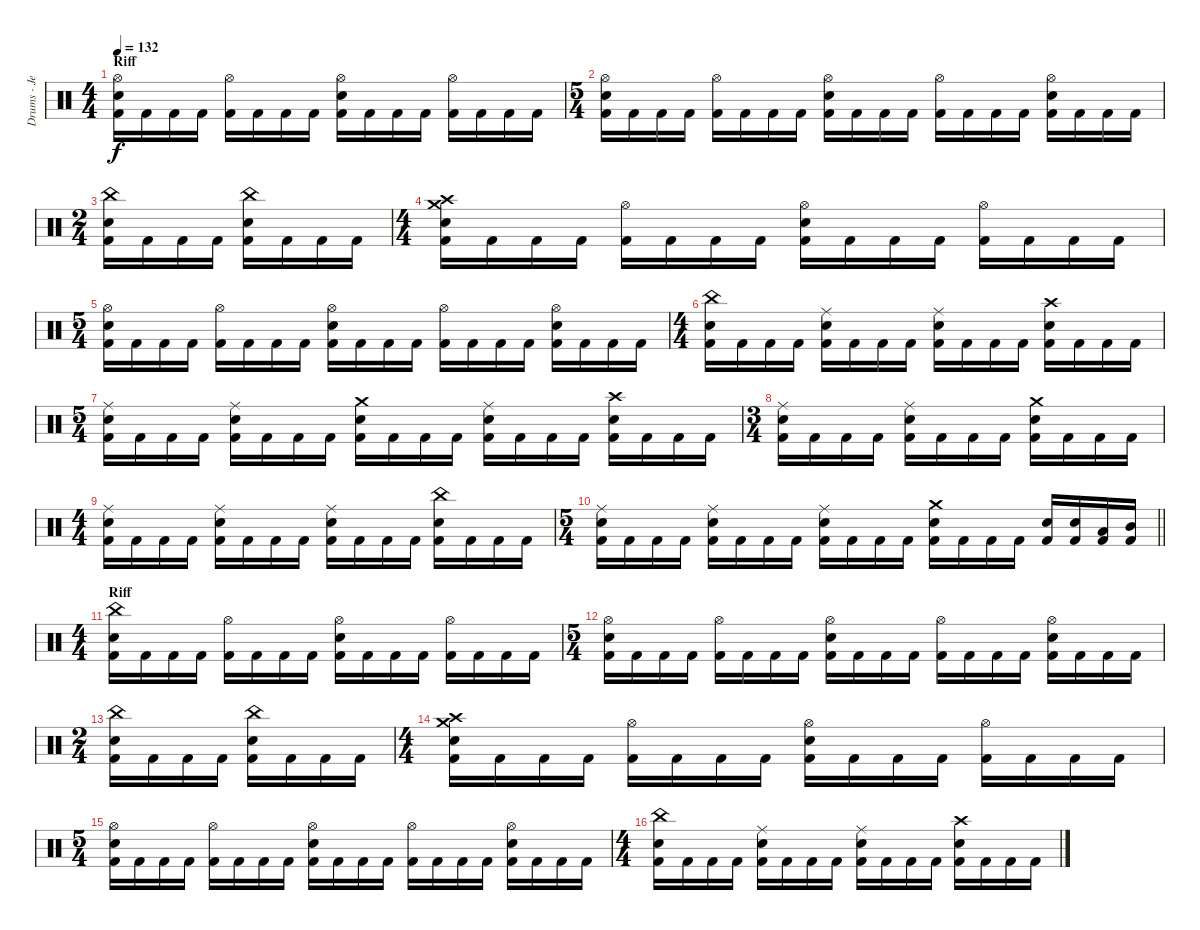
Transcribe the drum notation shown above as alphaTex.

\track ("Drums - Jeroen" "Drums - Je") {instrument percussion}
\staff {score}
\articulation defaults
\ts (4 4)
\section ("" "Riff")
\tempo 132
\clef neutral
\ks c
("Hi-Hat (open)" "Electric Snare (hit)" "Kick (hit) 2").16{dy f} "Kick (hit) 2".16 "Kick (hit) 2".16 "Kick (hit) 2".16 ("Hi-Hat (open)" "Kick (hit) 2").16 "Kick (hit) 2".16 "Kick (hit) 2".16 "Kick (hit) 2".16 ("Hi-Hat (open)" "Electric Snare (hit)" "Kick (hit) 2").16 "Kick (hit) 2".16 "Kick (hit) 2".16 "Kick (hit) 2".16 ("Hi-Hat (open)" "Kick (hit) 2").16 "Kick (hit) 2".16 "Kick (hit) 2".16 "Kick (hit) 2".16 |
\ts (5 4)
("Hi-Hat (open)" "Electric Snare (hit)" "Kick (hit) 2").16 "Kick (hit) 2".16 "Kick (hit) 2".16 "Kick (hit) 2".16 ("Hi-Hat (open)" "Kick (hit) 2").16 "Kick (hit) 2".16 "Kick (hit) 2".16 "Kick (hit) 2".16 ("Hi-Hat (open)" "Electric Snare (hit)" "Kick (hit) 2").16 "Kick (hit) 2".16 "Kick (hit) 2".16 "Kick (hit) 2".16 ("Hi-Hat (open)" "Kick (hit) 2").16 "Kick (hit) 2".16 "Kick (hit) 2".16 "Kick (hit) 2".16 ("Hi-Hat (open)" "Electric Snare (hit)" "Kick (hit) 2").16 "Kick (hit) 2".16 "Kick (hit) 2".16 "Kick (hit) 2".16 |
\ts (2 4)
("China (hit)" "Electric Snare (hit)" "Kick (hit) 2").16 "Kick (hit) 2".16 "Kick (hit) 2".16 "Kick (hit) 2".16 ("China (hit)" "Electric Snare (hit)" "Kick (hit) 2").16 "Kick (hit) 2".16 "Kick (hit) 2".16 "Kick (hit) 2".16 |
\ts (4 4)
("Crash high (hit)" "Crash medium (hit)" "Electric Snare (hit)" "Kick (hit) 2").16 "Kick (hit) 2".16 "Kick (hit) 2".16 "Kick (hit) 2".16 ("Hi-Hat (open)" "Kick (hit) 2").16 "Kick (hit) 2".16 "Kick (hit) 2".16 "Kick (hit) 2".16 ("Hi-Hat (open)" "Electric Snare (hit)" "Kick (hit) 2").16 "Kick (hit) 2".16 "Kick (hit) 2".16 "Kick (hit) 2".16 ("Hi-Hat (open)" "Kick (hit) 2").16 "Kick (hit) 2".16 "Kick (hit) 2".16 "Kick (hit) 2".16 |
\ts (5 4)
("Hi-Hat (open)" "Electric Snare (hit)" "Kick (hit) 2").16 "Kick (hit) 2".16 "Kick (hit) 2".16 "Kick (hit) 2".16 ("Hi-Hat (open)" "Kick (hit) 2").16 "Kick (hit) 2".16 "Kick (hit) 2".16 "Kick (hit) 2".16 ("Hi-Hat (open)" "Electric Snare (hit)" "Kick (hit) 2").16 "Kick (hit) 2".16 "Kick (hit) 2".16 "Kick (hit) 2".16 ("Hi-Hat (open)" "Kick (hit) 2").16 "Kick (hit) 2".16 "Kick (hit) 2".16 "Kick (hit) 2".16 ("Hi-Hat (open)" "Electric Snare (hit)" "Kick (hit) 2").16 "Kick (hit) 2".16 "Kick (hit) 2".16 "Kick (hit) 2".16 |
\ts (4 4)
("China (hit)" "Electric Snare (hit)" "Kick (hit) 2").16 "Kick (hit) 2".16 "Kick (hit) 2".16 "Kick (hit) 2".16 ("Ride (middle)" "Electric Snare (hit)" "Kick (hit) 2").16 "Kick (hit) 2".16 "Kick (hit) 2".16 "Kick (hit) 2".16 ("Ride (middle)" "Electric Snare (hit)" "Kick (hit) 2").16 "Kick (hit) 2".16 "Kick (hit) 2".16 "Kick (hit) 2".16 ("Crash high (hit)" "Electric Snare (hit)" "Kick (hit) 2").16 "Kick (hit) 2".16 "Kick (hit) 2".16 "Kick (hit) 2".16 |
\ts (5 4)
("Ride (middle)" "Electric Snare (hit)" "Kick (hit) 2").16 "Kick (hit) 2".16 "Kick (hit) 2".16 "Kick (hit) 2".16 ("Ride (middle)" "Electric Snare (hit)" "Kick (hit) 2").16 "Kick (hit) 2".16 "Kick (hit) 2".16 "Kick (hit) 2".16 ("Crash medium (hit)" "Electric Snare (hit)" "Kick (hit) 2").16 "Kick (hit) 2".16 "Kick (hit) 2".16 "Kick (hit) 2".16 ("Ride (middle)" "Electric Snare (hit)" "Kick (hit) 2").16 "Kick (hit) 2".16 "Kick (hit) 2".16 "Kick (hit) 2".16 ("Crash high (hit)" "Electric Snare (hit)" "Kick (hit) 2").16 "Kick (hit) 2".16 "Kick (hit) 2".16 "Kick (hit) 2".16 |
\ts (3 4)
("Ride (middle)" "Electric Snare (hit)" "Kick (hit) 2").16 "Kick (hit) 2".16 "Kick (hit) 2".16 "Kick (hit) 2".16 ("Ride (middle)" "Electric Snare (hit)" "Kick (hit) 2").16 "Kick (hit) 2".16 "Kick (hit) 2".16 "Kick (hit) 2".16 ("Crash medium (hit)" "Electric Snare (hit)" "Kick (hit) 2").16 "Kick (hit) 2".16 "Kick (hit) 2".16 "Kick (hit) 2".16 |
\ts (4 4)
("Ride (middle)" "Electric Snare (hit)" "Kick (hit) 2").16 "Kick (hit) 2".16 "Kick (hit) 2".16 "Kick (hit) 2".16 ("Ride (middle)" "Electric Snare (hit)" "Kick (hit) 2").16 "Kick (hit) 2".16 "Kick (hit) 2".16 "Kick (hit) 2".16 ("Ride (middle)" "Electric Snare (hit)" "Kick (hit) 2").16 "Kick (hit) 2".16 "Kick (hit) 2".16 "Kick (hit) 2".16 ("China (hit)" "Electric Snare (hit)" "Kick (hit) 2").16 "Kick (hit) 2".16 "Kick (hit) 2".16 "Kick (hit) 2".16 |
\ts (5 4)
\barLineRight lightlight
("Ride (middle)" "Electric Snare (hit)" "Kick (hit) 2").16 "Kick (hit) 2".16 "Kick (hit) 2".16 "Kick (hit) 2".16 ("Ride (middle)" "Electric Snare (hit)" "Kick (hit) 2").16 "Kick (hit) 2".16 "Kick (hit) 2".16 "Kick (hit) 2".16 ("Ride (middle)" "Electric Snare (hit)" "Kick (hit) 2").16 "Kick (hit) 2".16 "Kick (hit) 2".16 "Kick (hit) 2".16 ("Crash medium (hit)" "Electric Snare (hit)" "Kick (hit) 2").16 "Kick (hit) 2".16 "Kick (hit) 2".16 "Kick (hit) 2".16 ("Electric Snare (hit)" "Kick (hit) 2").16 ("Electric Snare (hit)" "Kick (hit) 2").16 ("Low Tom (hit)" "Kick (hit) 2").16 ("Mid Tom (hit)" "Kick (hit) 2").16 |
\ts (4 4)
\section ("" "Riff")
("China (hit)" "Electric Snare (hit)" "Kick (hit) 2").16 "Kick (hit) 2".16 "Kick (hit) 2".16 "Kick (hit) 2".16 ("Hi-Hat (open)" "Kick (hit) 2").16 "Kick (hit) 2".16 "Kick (hit) 2".16 "Kick (hit) 2".16 ("Hi-Hat (open)" "Electric Snare (hit)" "Kick (hit) 2").16 "Kick (hit) 2".16 "Kick (hit) 2".16 "Kick (hit) 2".16 ("Hi-Hat (open)" "Kick (hit) 2").16 "Kick (hit) 2".16 "Kick (hit) 2".16 "Kick (hit) 2".16 |
\ts (5 4)
("Hi-Hat (open)" "Electric Snare (hit)" "Kick (hit) 2").16 "Kick (hit) 2".16 "Kick (hit) 2".16 "Kick (hit) 2".16 ("Hi-Hat (open)" "Kick (hit) 2").16 "Kick (hit) 2".16 "Kick (hit) 2".16 "Kick (hit) 2".16 ("Hi-Hat (open)" "Electric Snare (hit)" "Kick (hit) 2").16 "Kick (hit) 2".16 "Kick (hit) 2".16 "Kick (hit) 2".16 ("Hi-Hat (open)" "Kick (hit) 2").16 "Kick (hit) 2".16 "Kick (hit) 2".16 "Kick (hit) 2".16 ("Hi-Hat (open)" "Electric Snare (hit)" "Kick (hit) 2").16 "Kick (hit) 2".16 "Kick (hit) 2".16 "Kick (hit) 2".16 |
\ts (2 4)
("China (hit)" "Electric Snare (hit)" "Kick (hit) 2").16 "Kick (hit) 2".16 "Kick (hit) 2".16 "Kick (hit) 2".16 ("China (hit)" "Electric Snare (hit)" "Kick (hit) 2").16 "Kick (hit) 2".16 "Kick (hit) 2".16 "Kick (hit) 2".16 |
\ts (4 4)
("Crash high (hit)" "Crash medium (hit)" "Electric Snare (hit)" "Kick (hit) 2").16 "Kick (hit) 2".16 "Kick (hit) 2".16 "Kick (hit) 2".16 ("Hi-Hat (open)" "Kick (hit) 2").16 "Kick (hit) 2".16 "Kick (hit) 2".16 "Kick (hit) 2".16 ("Hi-Hat (open)" "Electric Snare (hit)" "Kick (hit) 2").16 "Kick (hit) 2".16 "Kick (hit) 2".16 "Kick (hit) 2".16 ("Hi-Hat (open)" "Kick (hit) 2").16 "Kick (hit) 2".16 "Kick (hit) 2".16 "Kick (hit) 2".16 |
\ts (5 4)
("Hi-Hat (open)" "Electric Snare (hit)" "Kick (hit) 2").16 "Kick (hit) 2".16 "Kick (hit) 2".16 "Kick (hit) 2".16 ("Hi-Hat (open)" "Kick (hit) 2").16 "Kick (hit) 2".16 "Kick (hit) 2".16 "Kick (hit) 2".16 ("Hi-Hat (open)" "Electric Snare (hit)" "Kick (hit) 2").16 "Kick (hit) 2".16 "Kick (hit) 2".16 "Kick (hit) 2".16 ("Hi-Hat (open)" "Kick (hit) 2").16 "Kick (hit) 2".16 "Kick (hit) 2".16 "Kick (hit) 2".16 ("Hi-Hat (open)" "Electric Snare (hit)" "Kick (hit) 2").16 "Kick (hit) 2".16 "Kick (hit) 2".16 "Kick (hit) 2".16 |
\ts (4 4)
("China (hit)" "Electric Snare (hit)" "Kick (hit) 2").16 "Kick (hit) 2".16 "Kick (hit) 2".16 "Kick (hit) 2".16 ("Ride (middle)" "Electric Snare (hit)" "Kick (hit) 2").16 "Kick (hit) 2".16 "Kick (hit) 2".16 "Kick (hit) 2".16 ("Ride (middle)" "Electric Snare (hit)" "Kick (hit) 2").16 "Kick (hit) 2".16 "Kick (hit) 2".16 "Kick (hit) 2".16 ("Crash high (hit)" "Electric Snare (hit)" "Kick (hit) 2").16 "Kick (hit) 2".16 "Kick (hit) 2".16 "Kick (hit) 2".16
